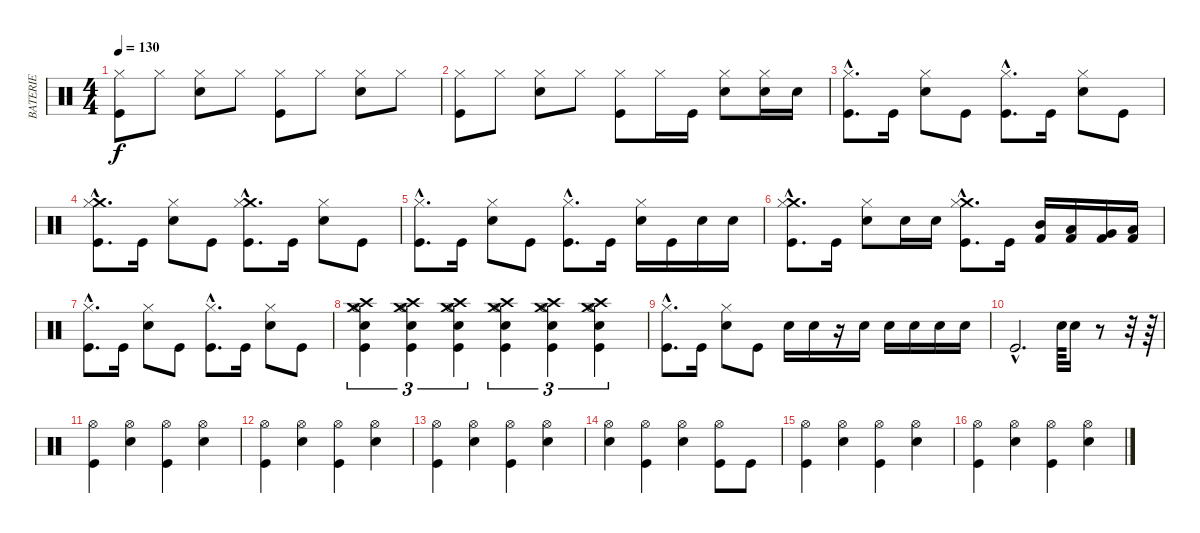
\track ("BATERIE" "BATERIE") {instrument percussion}
\staff {score}
\articulation defaults
\ts (4 4)
\tempo 130
\clef neutral
\ks c
("Hi-Hat (closed)" "Kick (hit)").8{dy f} "Hi-Hat (closed)".8 ("Hi-Hat (closed)" "Snare (hit) 2").8 "Hi-Hat (closed)".8 ("Hi-Hat (closed)" "Kick (hit)").8 "Hi-Hat (closed)".8 ("Hi-Hat (closed)" "Snare (hit) 2").8 "Hi-Hat (closed)".8 |
("Hi-Hat (closed)" "Kick (hit)").8 "Hi-Hat (closed)".8 ("Hi-Hat (closed)" "Snare (hit) 2").8 "Hi-Hat (closed)".8 ("Hi-Hat (closed)" "Kick (hit)").8 "Hi-Hat (closed)".16 "Kick (hit)".16 ("Hi-Hat (closed)" "Snare (hit) 2").8 ("Hi-Hat (closed)" "Snare (hit) 2").16 "Snare (hit) 2".16 |
("Hi-Hat (closed)"{hac} "Kick (hit)"{hac}).8{d} "Kick (hit)".16 ("Hi-Hat (closed)" "Snare (hit) 2").8 "Kick (hit)".8 ("Hi-Hat (closed)"{hac} "Kick (hit)"{hac}).8{d} "Kick (hit)".16 ("Hi-Hat (closed)" "Snare (hit) 2").8 "Kick (hit)".8 |
("Crash medium (hit)"{hac} "Hi-Hat (closed)"{hac} "Kick (hit)"{hac}).8{d} "Kick (hit)".16 ("Hi-Hat (closed)" "Snare (hit) 2").8 "Kick (hit)".8 ("Crash medium (hit)"{hac} "Hi-Hat (closed)"{hac} "Kick (hit)"{hac}).8{d} "Kick (hit)".16 ("Hi-Hat (closed)" "Snare (hit) 2").8 "Kick (hit)".8 |
("Hi-Hat (closed)"{hac} "Kick (hit)"{hac}).8{d} "Kick (hit)".16 ("Hi-Hat (closed)" "Snare (hit) 2").8 "Kick (hit)".8 ("Hi-Hat (closed)"{hac} "Kick (hit)"{hac}).8{d} "Kick (hit)".16 ("Hi-Hat (closed)" "Snare (hit) 2").16 "Kick (hit)".16 "Snare (hit) 2".16 "Snare (hit) 2".16 |
("Crash medium (hit)"{hac} "Hi-Hat (closed)"{hac} "Kick (hit)"{hac}).8{d} "Kick (hit)".16 ("Hi-Hat (closed)" "Snare (hit) 2").8 "Snare (hit) 2".16 "Snare (hit) 2".16 ("Crash medium (hit)"{hac} "Hi-Hat (closed)"{hac} "Kick (hit)"{hac}).8{d} "Kick (hit)".16 ("Mid Tom (hit)" "Kick (hit) 2").16 ("Low Tom (hit)" "Kick (hit) 2").16 ("Very Low Tom (hit)" "Kick (hit) 2").16 ("Low Floor Tom (hit)" "Kick (hit) 2").16 |
("Hi-Hat (closed)"{hac} "Kick (hit)"{hac}).8{d} "Kick (hit)".16 ("Hi-Hat (closed)" "Snare (hit) 2").8 "Kick (hit)".8 ("Hi-Hat (closed)"{hac} "Kick (hit)"{hac}).8{d} "Kick (hit)".16 ("Hi-Hat (closed)" "Snare (hit) 2").8 "Kick (hit)".8 |
("Snare (hit) 2" "Hi-Hat (open)" "Crash high (hit)" "Crash medium (hit)" "Kick (hit)").4{tu (3 2)} ("Snare (hit) 2" "Hi-Hat (open)" "Crash high (hit)" "Crash medium (hit)" "Kick (hit)").4{tu (3 2)} ("Snare (hit) 2" "Hi-Hat (open)" "Crash high (hit)" "Crash medium (hit)" "Kick (hit)").4{tu (3 2)} ("Snare (hit) 2" "Hi-Hat (open)" "Crash high (hit)" "Crash medium (hit)" "Kick (hit)").4{tu (3 2)} ("Snare (hit) 2" "Hi-Hat (open)" "Crash high (hit)" "Crash medium (hit)" "Kick (hit)").4{tu (3 2)} ("Snare (hit) 2" "Hi-Hat (open)" "Crash high (hit)" "Crash medium (hit)" "Kick (hit)").4{tu (3 2)} |
("Hi-Hat (closed)"{hac} "Kick (hit)"{hac}).8{d} "Kick (hit)".16 ("Hi-Hat (closed)" "Snare (hit) 2").8 "Kick (hit)".8 "Snare (hit) 2".16 "Snare (hit) 2".16 r.16 "Snare (hit) 2".16 "Snare (hit) 2".16 "Snare (hit) 2".16 "Snare (hit) 2".16 "Snare (hit) 2".16 |
"Kick (hit)"{hac}.2{d} "Snare (hit) 2".64 "Snare (hit) 2".16 r.8 r.32 r.64 |
("Hi-Hat (open)" "Kick (hit)").4 ("Hi-Hat (open)" "Snare (hit) 2").4 ("Hi-Hat (open)" "Kick (hit)").4 ("Hi-Hat (open)" "Snare (hit) 2").4 |
("Hi-Hat (open)" "Kick (hit)").4 ("Hi-Hat (open)" "Snare (hit) 2").4 ("Hi-Hat (open)" "Kick (hit)").4 ("Hi-Hat (open)" "Snare (hit) 2").4 |
("Hi-Hat (open)" "Kick (hit)").4 ("Hi-Hat (open)" "Snare (hit) 2").4 ("Hi-Hat (open)" "Kick (hit)").4 ("Hi-Hat (open)" "Snare (hit) 2").4 |
("Hi-Hat (open)" "Snare (hit) 2").4 ("Hi-Hat (open)" "Kick (hit)").4 ("Hi-Hat (open)" "Snare (hit) 2").4 ("Hi-Hat (open)" "Kick (hit)").8 "Kick (hit)".8 |
("Hi-Hat (open)" "Kick (hit)").4 ("Hi-Hat (open)" "Snare (hit) 2").4 ("Hi-Hat (open)" "Kick (hit)").4 ("Hi-Hat (open)" "Snare (hit) 2").4 |
("Hi-Hat (open)" "Kick (hit)").4 ("Hi-Hat (open)" "Snare (hit) 2").4 ("Hi-Hat (open)" "Kick (hit)").4 ("Hi-Hat (open)" "Snare (hit) 2").4
